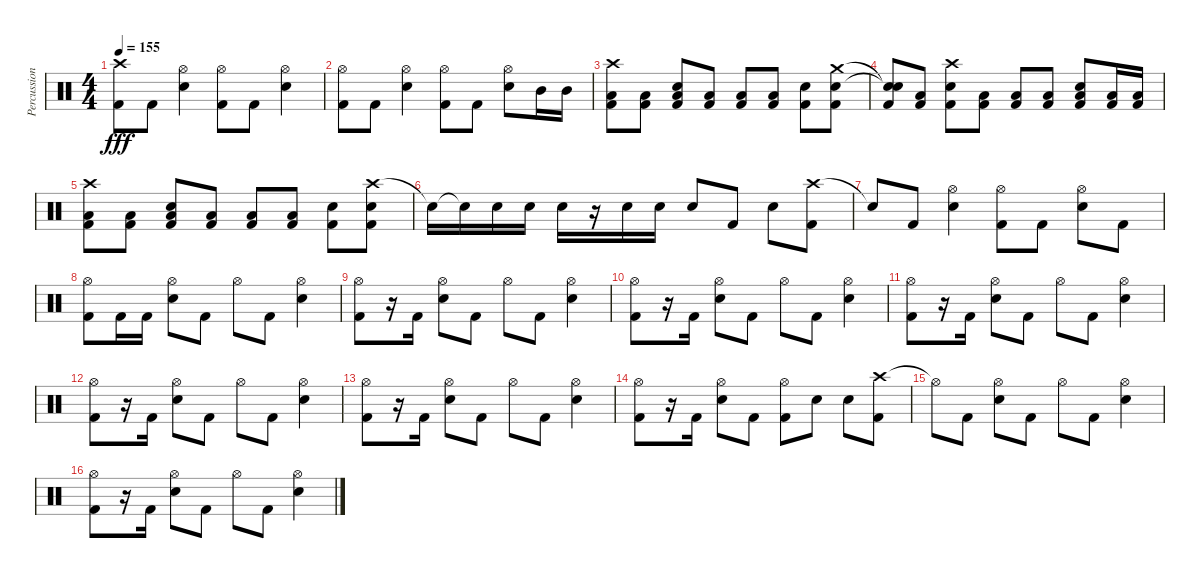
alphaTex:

\track ("Percussion" "Percussion") {instrument percussion}
\staff {score}
\articulation defaults
\ts (4 4)
\tempo 155
\clef neutral
\ks c
("Crash high (hit)" "Kick (hit) 2").8{dy fff} "Kick (hit) 2".8 ("Hi-Hat (open)" "Electric Snare (hit)").4 ("Hi-Hat (open)" "Kick (hit) 2").8 "Kick (hit) 2".8 ("Hi-Hat (open)" "Electric Snare (hit)").4 |
("Hi-Hat (open)" "Kick (hit) 2").8 "Kick (hit) 2".8 ("Hi-Hat (open)" "Electric Snare (hit)").4 ("Hi-Hat (open)" "Kick (hit) 2").8 "Kick (hit) 2".8 ("Hi-Hat (open)" "Electric Snare (hit)").8 "Mid Tom (hit)".16 "Mid Tom (hit)".16 |
("Crash high (hit)" "Low Floor Tom (hit)" "Kick (hit) 2").8 ("Low Floor Tom (hit)" "Kick (hit) 2").8 ("Low Floor Tom (hit)" "Electric Snare (hit)" "Kick (hit) 2").8 ("Low Floor Tom (hit)" "Kick (hit) 2").8 ("Low Floor Tom (hit)" "Kick (hit) 2").8 ("Low Floor Tom (hit)" "Kick (hit) 2").8 ("Electric Snare (hit)" "Kick (hit) 2").8 ("Crash medium (hit)" "Electric Snare (hit)" "Kick (hit) 2").8 |
("Snare (hit)"{t} "Snare (hit)"{t} "Kick (hit) 2").8 ("Low Floor Tom (hit)" "Kick (hit) 2").8 ("Crash high (hit)" "Electric Snare (hit)" "Kick (hit) 2").8 ("Low Floor Tom (hit)" "Kick (hit) 2").8 ("Low Floor Tom (hit)" "Kick (hit) 2").8 ("Low Floor Tom (hit)" "Kick (hit) 2").8 ("Low Floor Tom (hit)" "Electric Snare (hit)" "Kick (hit) 2").8 ("Low Floor Tom (hit)" "Kick (hit) 2").16 ("Low Tom (hit)" "Kick (hit) 2").16 |
("Crash high (hit)" "Low Floor Tom (hit)" "Kick (hit) 2").8 ("Low Floor Tom (hit)" "Kick (hit) 2").8 ("Low Floor Tom (hit)" "Electric Snare (hit)" "Kick (hit) 2").8 ("Low Floor Tom (hit)" "Kick (hit) 2").8 ("Low Floor Tom (hit)" "Kick (hit) 2").8 ("Low Floor Tom (hit)" "Kick (hit) 2").8 ("Electric Snare (hit)" "Kick (hit) 2").8 ("Crash high (hit)" "Electric Snare (hit)" "Kick (hit) 2").8 |
"Electric Snare (hit)"{t}.16 "Snare (hit)"{t}.16 "Electric Snare (hit)".16 "Electric Snare (hit)".16 "Electric Snare (hit)".16 r.16 "Electric Snare (hit)".16 "Electric Snare (hit)".16 "Electric Snare (hit)".8 "Kick (hit) 2".8 "Electric Snare (hit)".8 ("Crash high (hit)" "Kick (hit) 2").8 |
"Snare (hit)"{t}.8 "Kick (hit) 2".8 ("Hi-Hat (open)" "Electric Snare (hit)").4 ("Hi-Hat (open)" "Kick (hit) 2").8 "Kick (hit) 2".8 ("Hi-Hat (open)" "Electric Snare (hit)").8 "Kick (hit) 2".8 |
("Hi-Hat (open)" "Kick (hit) 2").8 "Kick (hit) 2".16 "Kick (hit) 2".16 ("Hi-Hat (open)" "Electric Snare (hit)").8 "Kick (hit) 2".8 "Hi-Hat (open)".8 "Kick (hit) 2".8 ("Hi-Hat (open)" "Electric Snare (hit)").4 |
("Hi-Hat (open)" "Kick (hit) 2").8 r.16 "Kick (hit) 2".16 ("Hi-Hat (open)" "Electric Snare (hit)").8 "Kick (hit) 2".8 "Hi-Hat (open)".8 "Kick (hit) 2".8 ("Hi-Hat (open)" "Electric Snare (hit)").4 |
("Hi-Hat (open)" "Kick (hit) 2").8 r.16 "Kick (hit) 2".16 ("Hi-Hat (open)" "Electric Snare (hit)").8 "Kick (hit) 2".8 "Hi-Hat (open)".8 "Kick (hit) 2".8 ("Hi-Hat (open)" "Electric Snare (hit)").4 |
("Hi-Hat (open)" "Kick (hit) 2").8 r.16 "Kick (hit) 2".16 ("Hi-Hat (open)" "Electric Snare (hit)").8 "Kick (hit) 2".8 "Hi-Hat (open)".8 "Kick (hit) 2".8 ("Hi-Hat (open)" "Electric Snare (hit)").4 |
("Hi-Hat (open)" "Kick (hit) 2").8 r.16 "Kick (hit) 2".16 ("Hi-Hat (open)" "Electric Snare (hit)").8 "Kick (hit) 2".8 "Hi-Hat (open)".8 "Kick (hit) 2".8 ("Hi-Hat (open)" "Electric Snare (hit)").4 |
("Hi-Hat (open)" "Kick (hit) 2").8 r.16 "Kick (hit) 2".16 ("Hi-Hat (open)" "Electric Snare (hit)").8 "Kick (hit) 2".8 "Hi-Hat (open)".8 "Kick (hit) 2".8 ("Hi-Hat (open)" "Electric Snare (hit)").4 |
("Hi-Hat (open)" "Kick (hit) 2").8 r.16 "Kick (hit) 2".16 ("Hi-Hat (open)" "Electric Snare (hit)").8 "Kick (hit) 2".8 ("Hi-Hat (open)" "Kick (hit) 2").8 "Electric Snare (hit)".8 "Electric Snare (hit)".8 ("Crash high (hit)" "Kick (hit) 2").8 |
"Hi-Hat (open)"{t}.8 "Kick (hit) 2".8 ("Hi-Hat (open)" "Electric Snare (hit)").8 "Kick (hit) 2".8 "Hi-Hat (open)".8 "Kick (hit) 2".8 ("Hi-Hat (open)" "Electric Snare (hit)").4 |
("Hi-Hat (open)" "Kick (hit) 2").8 r.16 "Kick (hit) 2".16 ("Hi-Hat (open)" "Electric Snare (hit)").8 "Kick (hit) 2".8 "Hi-Hat (open)".8 "Kick (hit) 2".8 ("Hi-Hat (open)" "Electric Snare (hit)").4
